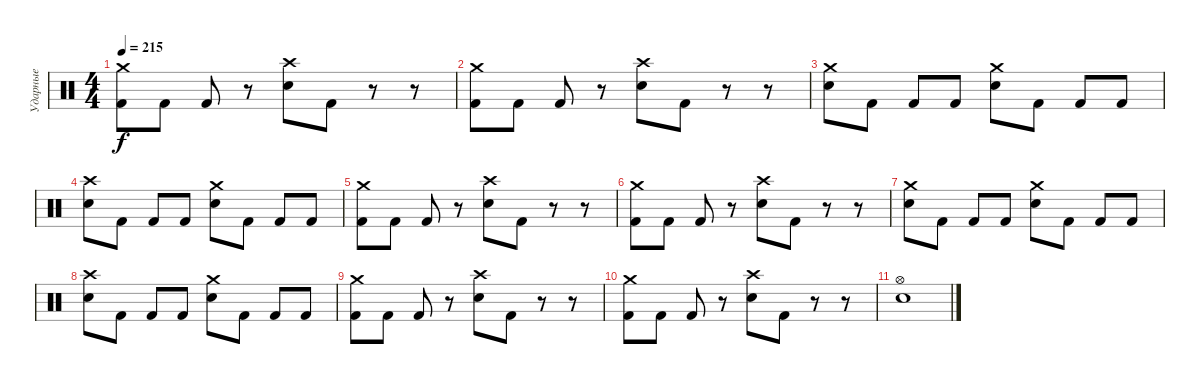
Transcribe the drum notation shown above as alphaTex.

\track ("Ударные" "Ударные") {instrument percussion}
\staff {score}
\articulation defaults
\ts (4 4)
\tempo 215
\clef neutral
\ks c
("Crash medium (hit)" "Kick (hit) 2").8{dy f} "Kick (hit) 2".8 "Kick (hit) 2".8 r.8 ("Crash high (hit)" "Electric Snare (hit)").8 "Kick (hit) 2".8 r.8 r.8 |
("Crash medium (hit)" "Kick (hit) 2").8 "Kick (hit) 2".8 "Kick (hit) 2".8 r.8 ("Crash high (hit)" "Electric Snare (hit)").8 "Kick (hit) 2".8 r.8 r.8 |
("Crash medium (hit)" "Electric Snare (hit)").8 "Kick (hit) 2".8 "Kick (hit) 2".8 "Kick (hit) 2".8 ("Crash medium (hit)" "Electric Snare (hit)").8 "Kick (hit) 2".8 "Kick (hit) 2".8 "Kick (hit) 2".8 |
("Crash high (hit)" "Electric Snare (hit)").8 "Kick (hit) 2".8 "Kick (hit) 2".8 "Kick (hit) 2".8 ("Crash medium (hit)" "Electric Snare (hit)").8 "Kick (hit) 2".8 "Kick (hit) 2".8 "Kick (hit) 2".8 |
("Crash medium (hit)" "Kick (hit) 2").8 "Kick (hit) 2".8 "Kick (hit) 2".8 r.8 ("Crash high (hit)" "Electric Snare (hit)").8 "Kick (hit) 2".8 r.8 r.8 |
("Crash medium (hit)" "Kick (hit) 2").8 "Kick (hit) 2".8 "Kick (hit) 2".8 r.8 ("Crash high (hit)" "Electric Snare (hit)").8 "Kick (hit) 2".8 r.8 r.8 |
("Crash medium (hit)" "Electric Snare (hit)").8 "Kick (hit) 2".8 "Kick (hit) 2".8 "Kick (hit) 2".8 ("Crash medium (hit)" "Electric Snare (hit)").8 "Kick (hit) 2".8 "Kick (hit) 2".8 "Kick (hit) 2".8 |
("Crash high (hit)" "Electric Snare (hit)").8 "Kick (hit) 2".8 "Kick (hit) 2".8 "Kick (hit) 2".8 ("Crash medium (hit)" "Electric Snare (hit)").8 "Kick (hit) 2".8 "Kick (hit) 2".8 "Kick (hit) 2".8 |
("Crash medium (hit)" "Kick (hit) 2").8 "Kick (hit) 2".8 "Kick (hit) 2".8 r.8 ("Crash high (hit)" "Electric Snare (hit)").8 "Kick (hit) 2".8 r.8 r.8 |
("Crash medium (hit)" "Kick (hit) 2").8 "Kick (hit) 2".8 "Kick (hit) 2".8 r.8 ("Crash high (hit)" "Electric Snare (hit)").8 "Kick (hit) 2".8 r.8 r.8 |
("Hi-Hat (open)" "Electric Snare (hit)").1
